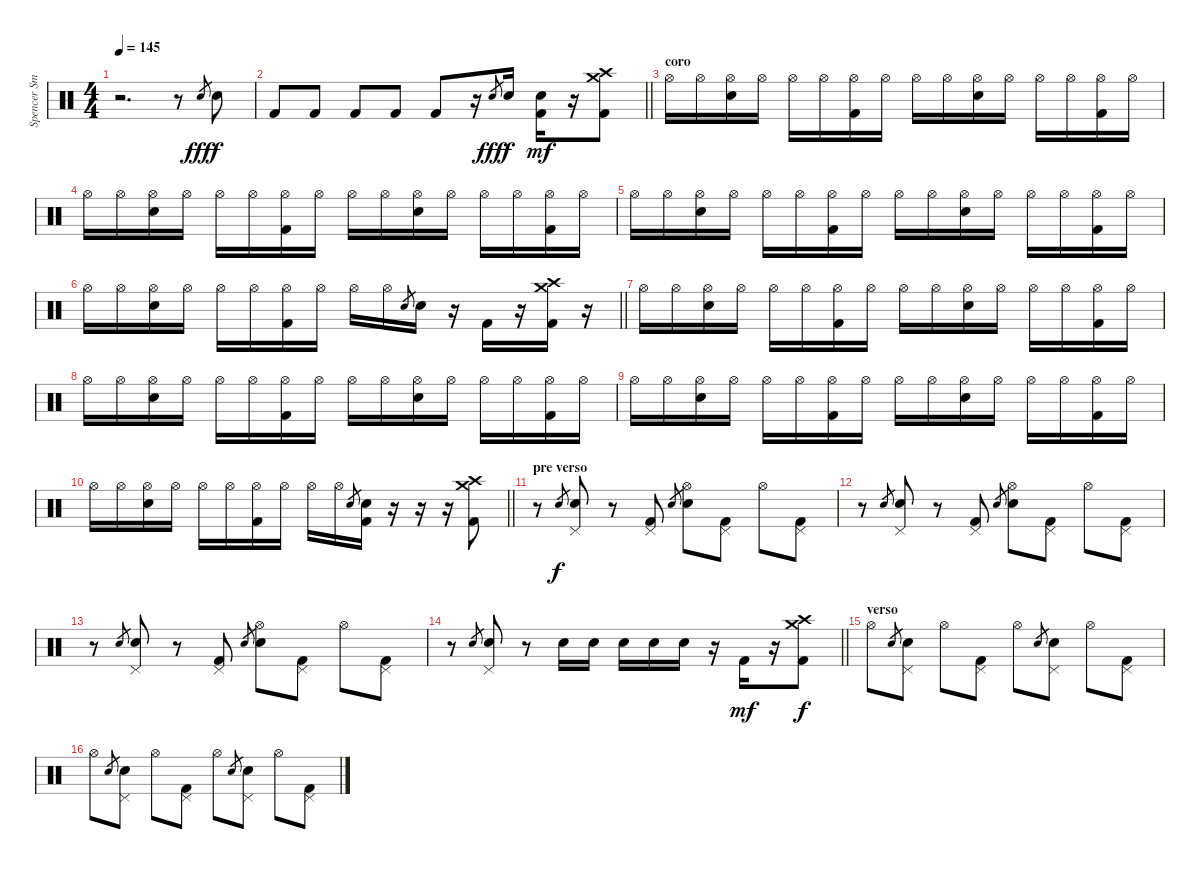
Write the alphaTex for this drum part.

\track ("Spencer Smith" "Spencer Sm") {instrument percussion}
\staff {score}
\articulation defaults
\ts (4 4)
\tempo 145
\clef neutral
\ks c
r.2{d dy fff} r.8 "Electric Snare (hit)".8{gr} "Electric Snare (hit)".8{dy f} |
\barLineRight lightlight "Kick (hit) 2".8 "Kick (hit) 2".8 "Kick (hit) 2".8 "Kick (hit) 2".8 "Kick (hit) 2".8
r.16 "Electric Snare (hit)".8{gr dy fff} "Electric Snare (hit)".16{dy f} ("Kick (hit) 2" "Electric Snare (hit)").16{dy mf} r.16 ("Crash medium (hit)" "Crash high (hit)" "Kick (hit) 2").8 |
\section ("" "coro")
"Hi-Hat (open)".16 "Hi-Hat (open)".16 ("Hi-Hat (open)" "Electric Snare (hit)").16 "Hi-Hat (open)".16 "Hi-Hat (open)".16 "Hi-Hat (open)".16 ("Hi-Hat (open)" "Kick (hit) 2").16 "Hi-Hat (open)".16 "Hi-Hat (open)".16 "Hi-Hat (open)".16 ("Hi-Hat (open)" "Electric Snare (hit)").16 "Hi-Hat (open)".16 "Hi-Hat (open)".16 "Hi-Hat (open)".16 ("Hi-Hat (open)" "Kick (hit) 2").16 "Hi-Hat (open)".16 |
"Hi-Hat (open)".16 "Hi-Hat (open)".16 ("Hi-Hat (open)" "Electric Snare (hit)").16 "Hi-Hat (open)".16 "Hi-Hat (open)".16 "Hi-Hat (open)".16 ("Hi-Hat (open)" "Kick (hit) 2").16 "Hi-Hat (open)".16 "Hi-Hat (open)".16 "Hi-Hat (open)".16 ("Hi-Hat (open)" "Electric Snare (hit)").16 "Hi-Hat (open)".16 "Hi-Hat (open)".16 "Hi-Hat (open)".16 ("Hi-Hat (open)" "Kick (hit) 2").16 "Hi-Hat (open)".16 |
"Hi-Hat (open)".16 "Hi-Hat (open)".16 ("Hi-Hat (open)" "Electric Snare (hit)").16 "Hi-Hat (open)".16 "Hi-Hat (open)".16 "Hi-Hat (open)".16 ("Hi-Hat (open)" "Kick (hit) 2").16 "Hi-Hat (open)".16 "Hi-Hat (open)".16 "Hi-Hat (open)".16 ("Hi-Hat (open)" "Electric Snare (hit)").16 "Hi-Hat (open)".16 "Hi-Hat (open)".16 "Hi-Hat (open)".16 ("Hi-Hat (open)" "Kick (hit) 2").16 "Hi-Hat (open)".16 |
\barLineRight lightlight "Hi-Hat (open)".16 "Hi-Hat (open)".16
("Hi-Hat (open)" "Electric Snare (hit)").16 "Hi-Hat (open)".16 "Hi-Hat (open)".16 "Hi-Hat (open)".16 ("Hi-Hat (open)" "Kick (hit) 2").16 "Hi-Hat (open)".16 "Hi-Hat (open)".16 "Hi-Hat (open)".16 "Electric Snare (hit)".8{gr} "Electric Snare (hit)".16 r.16 "Kick (hit) 2".16 r.16 ("Crash medium (hit)" "Crash high (hit)" "Kick (hit) 2").16 r.16 |
"Hi-Hat (open)".16 "Hi-Hat (open)".16 ("Hi-Hat (open)" "Electric Snare (hit)").16 "Hi-Hat (open)".16 "Hi-Hat (open)".16 "Hi-Hat (open)".16 ("Hi-Hat (open)" "Kick (hit) 2").16 "Hi-Hat (open)".16 "Hi-Hat (open)".16 "Hi-Hat (open)".16 ("Hi-Hat (open)" "Electric Snare (hit)").16 "Hi-Hat (open)".16 "Hi-Hat (open)".16 "Hi-Hat (open)".16 ("Hi-Hat (open)" "Kick (hit) 2").16 "Hi-Hat (open)".16 |
"Hi-Hat (open)".16 "Hi-Hat (open)".16 ("Hi-Hat (open)" "Electric Snare (hit)").16 "Hi-Hat (open)".16 "Hi-Hat (open)".16 "Hi-Hat (open)".16 ("Hi-Hat (open)" "Kick (hit) 2").16 "Hi-Hat (open)".16 "Hi-Hat (open)".16 "Hi-Hat (open)".16 ("Hi-Hat (open)" "Electric Snare (hit)").16 "Hi-Hat (open)".16 "Hi-Hat (open)".16 "Hi-Hat (open)".16 ("Hi-Hat (open)" "Kick (hit) 2").16 "Hi-Hat (open)".16 |
"Hi-Hat (open)".16 "Hi-Hat (open)".16 ("Hi-Hat (open)" "Electric Snare (hit)").16 "Hi-Hat (open)".16 "Hi-Hat (open)".16 "Hi-Hat (open)".16 ("Hi-Hat (open)" "Kick (hit) 2").16 "Hi-Hat (open)".16 "Hi-Hat (open)".16 "Hi-Hat (open)".16 ("Hi-Hat (open)" "Electric Snare (hit)").16 "Hi-Hat (open)".16 "Hi-Hat (open)".16 "Hi-Hat (open)".16 ("Hi-Hat (open)" "Kick (hit) 2").16 "Hi-Hat (open)".16 |
\barLineRight lightlight "Hi-Hat (open)".16 "Hi-Hat (open)".16
("Hi-Hat (open)" "Electric Snare (hit)").16 "Hi-Hat (open)".16 "Hi-Hat (open)".16 "Hi-Hat (open)".16 ("Hi-Hat (open)" "Kick (hit) 2").16 "Hi-Hat (open)".16 "Hi-Hat (open)".16 "Hi-Hat (open)".16 "Electric Snare (hit)".8{gr} ("Electric Snare (hit)" "Kick (hit) 2").16 r.16 r.16 r.16 ("Crash high (hit)" "Crash medium (hit)" "Kick (hit) 2").8 |
\section ("" "pre verso")
r.8 "Electric Snare (hit)".8{gr dy f} ("Pedal Hi-Hat (hit)" "Electric Snare (hit)").8 r.8 ("Pedal Hi-Hat (hit)" "Kick (hit) 2").8 "Electric Snare (hit)".8{gr} ("Hi-Hat (open)" "Electric Snare (hit)").8 ("Pedal Hi-Hat (hit)" "Kick (hit) 2").8 "Hi-Hat (open)".8 ("Pedal Hi-Hat (hit)" "Kick (hit) 2").8 |
r.8 "Electric Snare (hit)".8{gr} ("Pedal Hi-Hat (hit)" "Electric Snare (hit)").8 r.8 ("Pedal Hi-Hat (hit)" "Kick (hit) 2").8 "Electric Snare (hit)".8{gr} ("Hi-Hat (open)" "Electric Snare (hit)").8 ("Pedal Hi-Hat (hit)" "Kick (hit) 2").8 "Hi-Hat (open)".8 ("Pedal Hi-Hat (hit)" "Kick (hit) 2").8 |
r.8 "Electric Snare (hit)".8{gr} ("Pedal Hi-Hat (hit)" "Electric Snare (hit)").8 r.8 ("Pedal Hi-Hat (hit)" "Kick (hit) 2").8 "Electric Snare (hit)".8{gr} ("Hi-Hat (open)" "Electric Snare (hit)").8 ("Pedal Hi-Hat (hit)" "Kick (hit) 2").8 "Hi-Hat (open)".8 ("Pedal Hi-Hat (hit)" "Kick (hit) 2").8 |
\barLineRight lightlight
r.8 "Electric Snare (hit)".8{gr} ("Pedal Hi-Hat (hit)" "Electric Snare (hit)").8 r.8 "Electric Snare (hit)".16 "Electric Snare (hit)".16 "Electric Snare (hit)".16 "Electric Snare (hit)".16 "Electric Snare (hit)".16 r.16 "Kick (hit) 2".16{dy mf} r.16 ("Crash medium (hit)" "Crash high (hit)" "Kick (hit) 2").8{dy f} |
\section ("" "verso")
"Hi-Hat (open)".8 "Electric Snare (hit)".8{gr} ("Pedal Hi-Hat (hit)" "Electric Snare (hit)").8 "Hi-Hat (open)".8 ("Pedal Hi-Hat (hit)" "Kick (hit) 2").8 "Hi-Hat (open)".8 "Electric Snare (hit)".8{gr} ("Pedal Hi-Hat (hit)" "Electric Snare (hit)").8 "Hi-Hat (open)".8 ("Pedal Hi-Hat (hit)" "Kick (hit) 2").8 |
"Hi-Hat (open)".8 "Electric Snare (hit)".8{gr} ("Pedal Hi-Hat (hit)" "Electric Snare (hit)").8 "Hi-Hat (open)".8 ("Pedal Hi-Hat (hit)" "Kick (hit) 2").8 "Hi-Hat (open)".8 "Electric Snare (hit)".8{gr} ("Pedal Hi-Hat (hit)" "Electric Snare (hit)").8 "Hi-Hat (open)".8 ("Pedal Hi-Hat (hit)" "Kick (hit) 2").8
